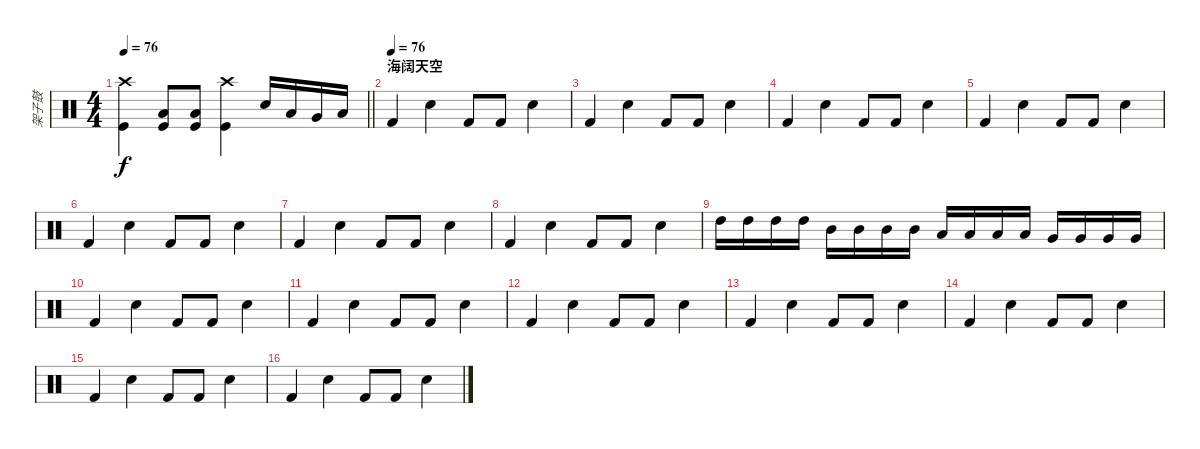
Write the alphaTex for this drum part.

\track ("架子鼓" "架子鼓") {instrument percussion}
\staff {score}
\articulation defaults
\ts (4 4)
\tempo 76
\clef neutral
\barLineRight lightlight
\ks c
("Crash high (hit)" "Kick (hit)").4{dy f} ("Kick (hit)" "Low Tom (hit)").8 ("Kick (hit)" "Low Tom (hit)").8 ("Crash high (hit)" "Kick (hit)").4 "Electric Snare (hit)".16 "Low Tom (hit)".16 "Very Low Tom (hit)".16 "Low Floor Tom (hit)".16 |
\section ("" "海阔天空")
\tempo (76)
"Kick (hit) 2".4 "Electric Snare (hit)".4 "Kick (hit) 2".8 "Kick (hit) 2".8 "Electric Snare (hit)".4 |
"Kick (hit) 2".4 "Electric Snare (hit)".4 "Kick (hit) 2".8 "Kick (hit) 2".8 "Electric Snare (hit)".4 |
"Kick (hit) 2".4 "Electric Snare (hit)".4 "Kick (hit) 2".8 "Kick (hit) 2".8 "Electric Snare (hit)".4 |
"Kick (hit) 2".4 "Electric Snare (hit)".4 "Kick (hit) 2".8 "Kick (hit) 2".8 "Electric Snare (hit)".4 |
"Kick (hit) 2".4 "Electric Snare (hit)".4 "Kick (hit) 2".8 "Kick (hit) 2".8 "Electric Snare (hit)".4 |
"Kick (hit) 2".4 "Electric Snare (hit)".4 "Kick (hit) 2".8 "Kick (hit) 2".8 "Electric Snare (hit)".4 |
"Kick (hit) 2".4 "Electric Snare (hit)".4 "Kick (hit) 2".8 "Kick (hit) 2".8 "Electric Snare (hit)".4 |
"High Tom (hit)".16 "High Tom (hit)".16 "High Tom (hit)".16 "High Tom (hit)".16 "Mid Tom (hit)".16 "Mid Tom (hit)".16 "Mid Tom (hit)".16 "Mid Tom (hit)".16 "Low Tom (hit)".16 "Low Tom (hit)".16 "Low Tom (hit)".16 "Low Tom (hit)".16 "Very Low Tom (hit)".16 "Very Low Tom (hit)".16 "Very Low Tom (hit)".16 "Very Low Tom (hit)".16 |
"Kick (hit) 2".4 "Electric Snare (hit)".4 "Kick (hit) 2".8 "Kick (hit) 2".8 "Electric Snare (hit)".4 |
"Kick (hit) 2".4 "Electric Snare (hit)".4 "Kick (hit) 2".8 "Kick (hit) 2".8 "Electric Snare (hit)".4 |
"Kick (hit) 2".4 "Electric Snare (hit)".4 "Kick (hit) 2".8 "Kick (hit) 2".8 "Electric Snare (hit)".4 |
"Kick (hit) 2".4 "Electric Snare (hit)".4 "Kick (hit) 2".8 "Kick (hit) 2".8 "Electric Snare (hit)".4 |
"Kick (hit) 2".4 "Electric Snare (hit)".4 "Kick (hit) 2".8 "Kick (hit) 2".8 "Electric Snare (hit)".4 |
"Kick (hit) 2".4 "Electric Snare (hit)".4 "Kick (hit) 2".8 "Kick (hit) 2".8 "Electric Snare (hit)".4 |
"Kick (hit) 2".4 "Electric Snare (hit)".4 "Kick (hit) 2".8 "Kick (hit) 2".8 "Electric Snare (hit)".4
